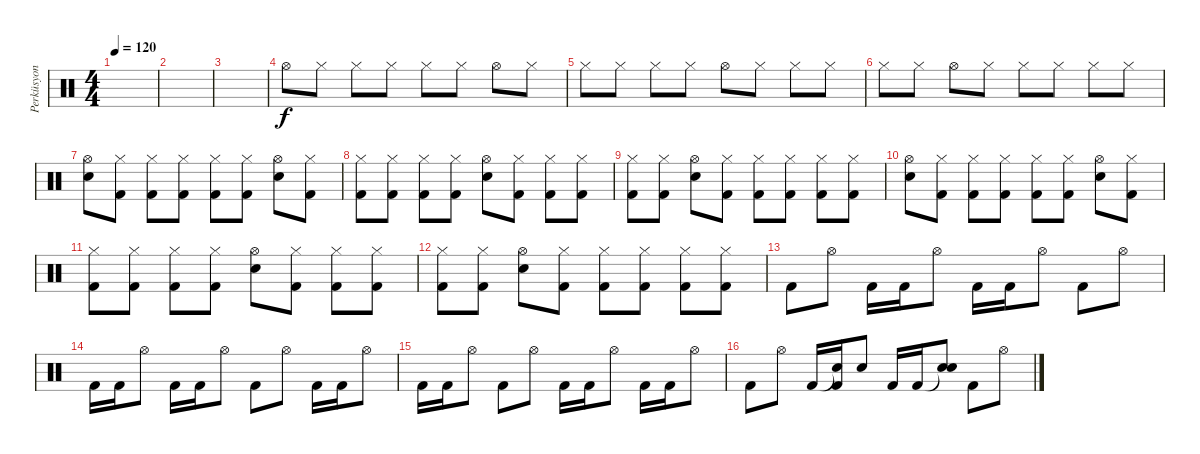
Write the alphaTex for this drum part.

\track ("Perküsyon" "Perküsyon") {instrument percussion}
\staff {score}
\articulation defaults
\ts (4 4)
\tempo 120
\clef neutral
\ks c
|
|
|
"Hi-Hat (open)".8 "Hi-Hat (closed)".8 "Hi-Hat (closed)".8 "Hi-Hat (closed)".8 "Hi-Hat (closed)".8 "Hi-Hat (closed)".8 "Hi-Hat (open)".8 "Hi-Hat (closed)".8 |
"Hi-Hat (closed)".8 "Hi-Hat (closed)".8 "Hi-Hat (closed)".8 "Hi-Hat (closed)".8 "Hi-Hat (open)".8 "Hi-Hat (closed)".8 "Hi-Hat (closed)".8 "Hi-Hat (closed)".8 |
"Hi-Hat (closed)".8 "Hi-Hat (closed)".8 "Hi-Hat (open)".8 "Hi-Hat (closed)".8 "Hi-Hat (closed)".8 "Hi-Hat (closed)".8 "Hi-Hat (closed)".8 "Hi-Hat (closed)".8 |
("Hi-Hat (open)" "Electric Snare (hit)").8 ("Hi-Hat (closed)" "Kick (hit) 2").8 ("Hi-Hat (closed)" "Kick (hit) 2").8 ("Hi-Hat (closed)" "Kick (hit) 2").8 ("Hi-Hat (closed)" "Kick (hit) 2").8 ("Hi-Hat (closed)" "Kick (hit) 2").8 ("Hi-Hat (open)" "Electric Snare (hit)").8 ("Hi-Hat (closed)" "Kick (hit) 2").8 |
("Hi-Hat (closed)" "Kick (hit) 2").8 ("Hi-Hat (closed)" "Kick (hit) 2").8 ("Hi-Hat (closed)" "Kick (hit) 2").8 ("Hi-Hat (closed)" "Kick (hit) 2").8 ("Hi-Hat (open)" "Electric Snare (hit)").8 ("Hi-Hat (closed)" "Kick (hit) 2").8 ("Hi-Hat (closed)" "Kick (hit) 2").8 ("Hi-Hat (closed)" "Kick (hit) 2").8 |
("Hi-Hat (closed)" "Kick (hit) 2").8 ("Hi-Hat (closed)" "Kick (hit) 2").8 ("Hi-Hat (open)" "Electric Snare (hit)").8 ("Hi-Hat (closed)" "Kick (hit) 2").8 ("Hi-Hat (closed)" "Kick (hit) 2").8 ("Hi-Hat (closed)" "Kick (hit) 2").8 ("Hi-Hat (closed)" "Kick (hit) 2").8 ("Hi-Hat (closed)" "Kick (hit) 2").8 |
("Hi-Hat (open)" "Electric Snare (hit)").8 ("Hi-Hat (closed)" "Kick (hit) 2").8 ("Hi-Hat (closed)" "Kick (hit) 2").8 ("Hi-Hat (closed)" "Kick (hit) 2").8 ("Hi-Hat (closed)" "Kick (hit) 2").8 ("Hi-Hat (closed)" "Kick (hit) 2").8 ("Hi-Hat (open)" "Electric Snare (hit)").8 ("Hi-Hat (closed)" "Kick (hit) 2").8 |
("Hi-Hat (closed)" "Kick (hit) 2").8 ("Hi-Hat (closed)" "Kick (hit) 2").8 ("Hi-Hat (closed)" "Kick (hit) 2").8 ("Hi-Hat (closed)" "Kick (hit) 2").8 ("Hi-Hat (open)" "Electric Snare (hit)").8 ("Hi-Hat (closed)" "Kick (hit) 2").8 ("Hi-Hat (closed)" "Kick (hit) 2").8 ("Hi-Hat (closed)" "Kick (hit) 2").8 |
("Hi-Hat (closed)" "Kick (hit) 2").8 ("Hi-Hat (closed)" "Kick (hit) 2").8 ("Hi-Hat (open)" "Electric Snare (hit)").8 ("Hi-Hat (closed)" "Kick (hit) 2").8 ("Hi-Hat (closed)" "Kick (hit) 2").8 ("Hi-Hat (closed)" "Kick (hit) 2").8 ("Hi-Hat (closed)" "Kick (hit) 2").8 ("Hi-Hat (closed)" "Kick (hit) 2").8 |
"Kick (hit) 2".8 "Hi-Hat (open)".8 "Kick (hit) 2".16 "Kick (hit) 2".16 "Hi-Hat (open)".8 "Kick (hit) 2".16 "Kick (hit) 2".16 "Hi-Hat (open)".8 "Kick (hit) 2".8 "Hi-Hat (open)".8 |
"Kick (hit) 2".16 "Kick (hit) 2".16 "Hi-Hat (open)".8 "Kick (hit) 2".16 "Kick (hit) 2".16 "Hi-Hat (open)".8 "Kick (hit) 2".8 "Hi-Hat (open)".8 "Kick (hit) 2".16 "Kick (hit) 2".16 "Hi-Hat (open)".8 |
"Kick (hit) 2".16 "Kick (hit) 2".16 "Hi-Hat (open)".8 "Kick (hit) 2".8 "Hi-Hat (open)".8 "Kick (hit) 2".16 "Kick (hit) 2".16 "Hi-Hat (open)".8 "Kick (hit) 2".16 "Kick (hit) 2".16 "Hi-Hat (open)".8 |
"Kick (hit) 2".8 "Hi-Hat (open)".8 "Kick (hit) 2".16 ("Snare (hit)"{t} "Kick (hit) 2").16 "Snare (hit) 2".8 "Kick (hit) 2".16 "Kick (hit) 2".16 ("Snare (hit)"{t} "Snare (hit) 2").8 "Kick (hit) 2".8 "Hi-Hat (open)".8
